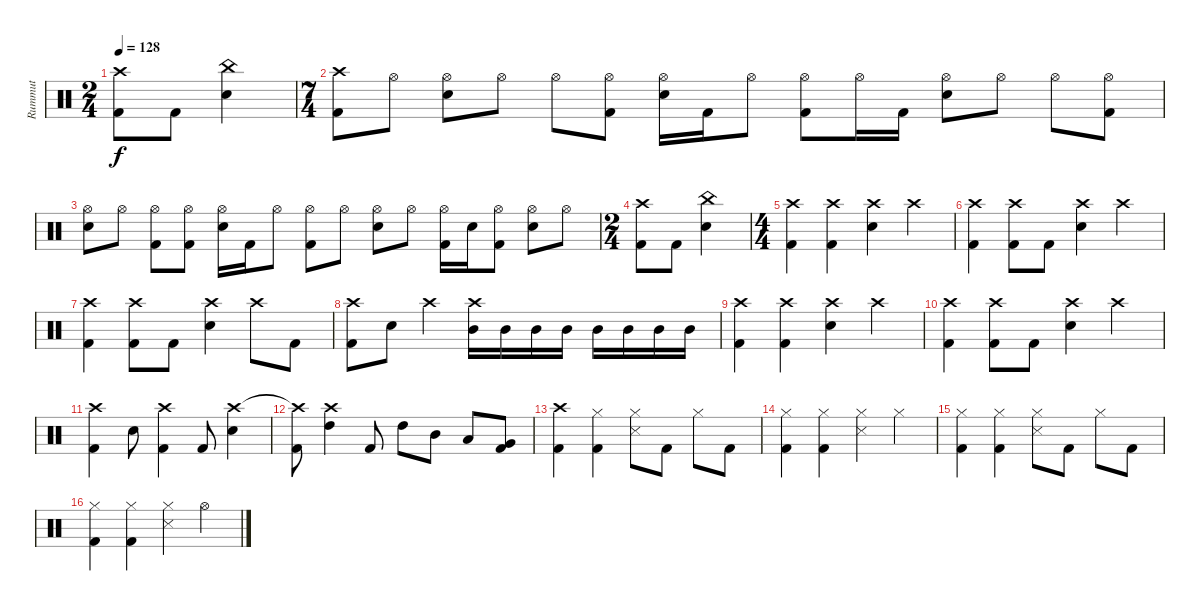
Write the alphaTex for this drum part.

\track ("Rummut" "Rummut") {instrument percussion}
\staff {score}
\articulation defaults
\ts (2 4)
\tempo 128
\clef neutral
\ks aminor
("Crash high (hit)" "Kick (hit) 2").8{dy f} "Kick (hit) 2".8 ("China (hit)" "Electric Snare (hit)").4 |
\ts (7 4)
("Crash high (hit)" "Kick (hit) 2").8 "Hi-Hat (open)".8 ("Hi-Hat (open)" "Electric Snare (hit)").8 "Hi-Hat (open)".8 "Hi-Hat (open)".8 ("Hi-Hat (open)" "Kick (hit) 2").8 ("Hi-Hat (open)" "Electric Snare (hit)").16 "Kick (hit) 2".16 "Hi-Hat (open)".8 ("Hi-Hat (open)" "Kick (hit) 2").8 "Hi-Hat (open)".16 "Kick (hit) 2".16 ("Hi-Hat (open)" "Electric Snare (hit)").8 "Hi-Hat (open)".8 "Hi-Hat (open)".8 ("Hi-Hat (open)" "Kick (hit) 2").8 |
("Hi-Hat (open)" "Electric Snare (hit)").8 "Hi-Hat (open)".8 ("Hi-Hat (open)" "Kick (hit) 2").8 ("Hi-Hat (open)" "Kick (hit) 2").8 ("Hi-Hat (open)" "Electric Snare (hit)").16 "Kick (hit) 2".16 "Hi-Hat (open)".8 ("Hi-Hat (open)" "Kick (hit) 2").8 "Hi-Hat (open)".8 ("Hi-Hat (open)" "Electric Snare (hit)").8 "Hi-Hat (open)".8 ("Hi-Hat (open)" "Kick (hit) 2").16 "Electric Snare (hit)".16 ("Hi-Hat (open)" "Kick (hit) 2").8 ("Hi-Hat (open)" "Electric Snare (hit)").8 "Hi-Hat (open)".8 |
\ts (2 4)
("Crash high (hit)" "Kick (hit) 2").8 "Kick (hit) 2".8 ("China (hit)" "Electric Snare (hit)").4 |
\ts (4 4)
("Crash high (hit)" "Kick (hit) 2").4 ("Crash high (hit)" "Kick (hit) 2").4 ("Crash high (hit)" "Electric Snare (hit)").4 "Crash high (hit)".4 |
("Crash high (hit)" "Kick (hit) 2").4 ("Crash high (hit)" "Kick (hit) 2").8 "Kick (hit) 2".8 ("Crash high (hit)" "Electric Snare (hit)").4 "Crash high (hit)".4 |
("Crash high (hit)" "Kick (hit) 2").4 ("Crash high (hit)" "Kick (hit) 2").8 "Kick (hit) 2".8 ("Crash high (hit)" "Electric Snare (hit)").4 "Crash high (hit)".8 "Kick (hit) 2".8 |
("Crash high (hit)" "Kick (hit) 2").8 "Electric Snare (hit)".8 "Crash high (hit)".4 ("Crash high (hit)" "Mid Tom (hit)").16 "Mid Tom (hit)".16 "Mid Tom (hit)".16 "Mid Tom (hit)".16 "Mid Tom (hit)".16 "Mid Tom (hit)".16 "Mid Tom (hit)".16 "Mid Tom (hit)".16 |
("Crash high (hit)" "Kick (hit) 2").4 ("Crash high (hit)" "Kick (hit) 2").4 ("Crash high (hit)" "Electric Snare (hit)").4 "Crash high (hit)".4 |
("Crash high (hit)" "Kick (hit) 2").4 ("Crash high (hit)" "Kick (hit) 2").8 "Kick (hit) 2".8 ("Crash high (hit)" "Electric Snare (hit)").4 "Crash high (hit)".4 |
("Crash high (hit)" "Kick (hit) 2").4 "Electric Snare (hit)".8 ("Crash high (hit)" "Kick (hit) 2").4 "Kick (hit) 2".8 ("Crash high (hit)" "Electric Snare (hit)").4 |
("Crash high (hit)"{t} "Kick (hit) 2").8 ("Crash high (hit)" "High Tom (hit)").4 "Kick (hit) 2".8 "High Tom (hit)".8 "Mid Tom (hit)".8 "Low Tom (hit)".8 ("Very Low Tom (hit)" "Kick (hit) 2").8 |
("Crash high (hit)" "Kick (hit) 2").4 ("Hi-Hat (closed)" "Kick (hit) 2").4 ("Hi-Hat (closed)" "Snare (side stick) 3").8 "Kick (hit) 2".8 "Hi-Hat (closed)".8 "Kick (hit) 2".8 |
("Hi-Hat (closed)" "Kick (hit) 2").4 ("Hi-Hat (closed)" "Kick (hit) 2").4 ("Hi-Hat (closed)" "Snare (side stick) 3").4 "Hi-Hat (closed)".4 |
("Hi-Hat (closed)" "Kick (hit) 2").4 ("Hi-Hat (closed)" "Kick (hit) 2").4 ("Hi-Hat (closed)" "Snare (side stick) 3").8 "Kick (hit) 2".8 "Hi-Hat (closed)".8 "Kick (hit) 2".8 |
("Hi-Hat (closed)" "Kick (hit) 2").4 ("Hi-Hat (closed)" "Kick (hit) 2").4 ("Hi-Hat (closed)" "Snare (side stick) 3").4 "Hi-Hat (open)".4
